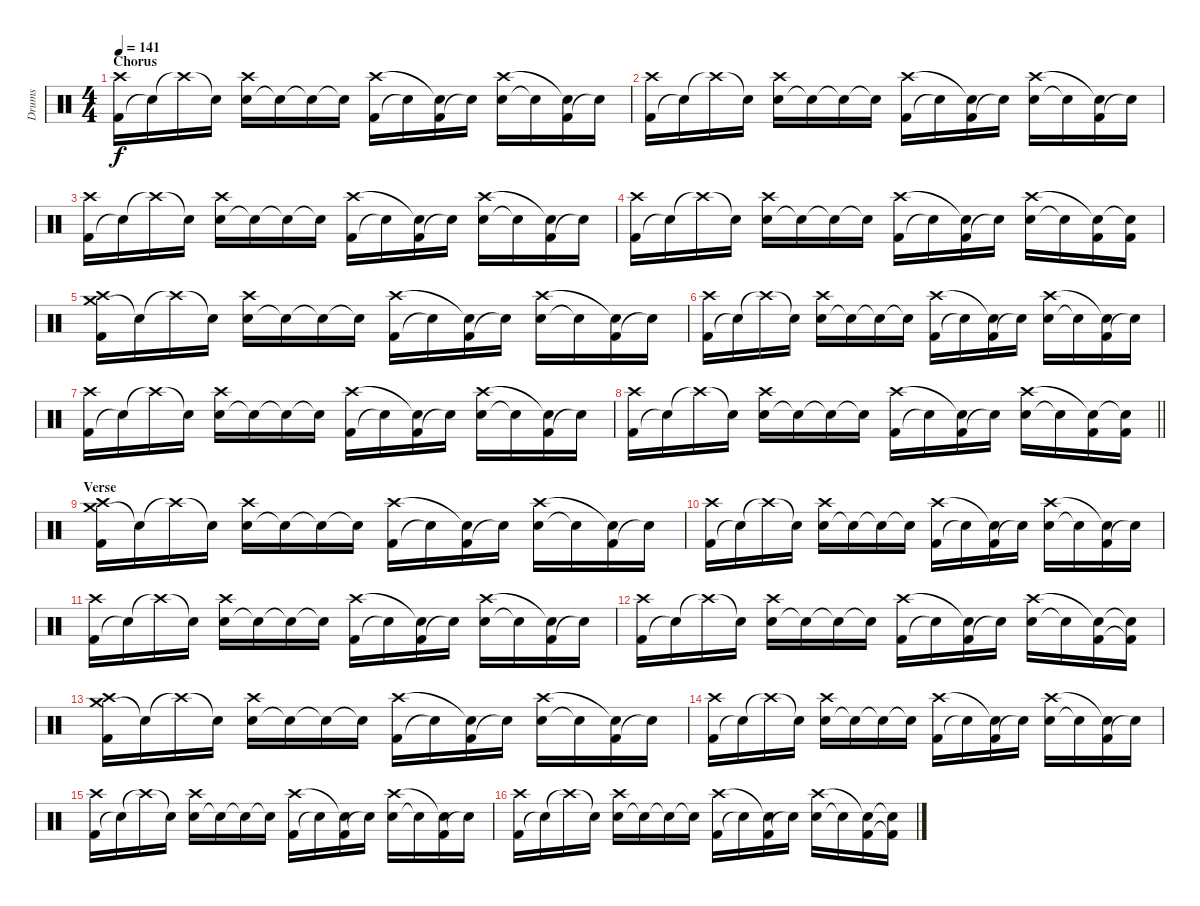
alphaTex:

\track ("Drums" "Drums") {instrument percussion}
\staff {score}
\articulation defaults
\ts (4 4)
\section ("" "Chorus")
\tempo 141
\clef neutral
\ks c
("Kick (hit) 2" "Crash high (hit)").16{dy f} "Snare (hit)"{t}.16 "Crash high (hit)"{t}.16 "Snare (hit)"{t}.16 ("Snare (hit) 2" "Crash high (hit)").16 "Snare (hit)"{t}.16 "Snare (hit)"{t}.16 "Snare (hit)"{t}.16 ("Kick (hit) 2" "Crash high (hit)").16 "Snare (hit)"{t}.16 ("Kick (hit) 2" "Snare (hit)"{t}).16 "Snare (hit)"{t}.16 ("Snare (hit) 2" "Crash high (hit)").16 "Snare (hit)"{t}.16 ("Kick (hit) 2" "Snare (hit)"{t}).16 "Snare (hit)"{t}.16 |
("Kick (hit) 2" "Crash high (hit)").16 "Snare (hit)"{t}.16 "Crash high (hit)"{t}.16 "Snare (hit)"{t}.16 ("Snare (hit) 2" "Crash high (hit)").16 "Snare (hit)"{t}.16 "Snare (hit)"{t}.16 "Snare (hit)"{t}.16 ("Kick (hit) 2" "Crash high (hit)").16 "Snare (hit)"{t}.16 ("Kick (hit) 2" "Snare (hit)"{t}).16 "Snare (hit)"{t}.16 ("Snare (hit) 2" "Crash high (hit)").16 "Snare (hit)"{t}.16 ("Kick (hit) 2" "Snare (hit)"{t}).16 "Snare (hit)"{t}.16 |
("Kick (hit) 2" "Crash high (hit)").16 "Snare (hit)"{t}.16 "Crash high (hit)"{t}.16 "Snare (hit)"{t}.16 ("Snare (hit) 2" "Crash high (hit)").16 "Snare (hit)"{t}.16 "Snare (hit)"{t}.16 "Snare (hit)"{t}.16 ("Kick (hit) 2" "Crash high (hit)").16 "Snare (hit)"{t}.16 ("Kick (hit) 2" "Snare (hit)"{t}).16 "Snare (hit)"{t}.16 ("Snare (hit) 2" "Crash high (hit)").16 "Snare (hit)"{t}.16 ("Kick (hit) 2" "Snare (hit)"{t}).16 "Snare (hit)"{t}.16 |
("Kick (hit) 2" "Crash high (hit)").16 "Snare (hit)"{t}.16 "Crash high (hit)"{t}.16 "Snare (hit)"{t}.16 ("Snare (hit) 2" "Crash high (hit)").16 "Snare (hit)"{t}.16 "Snare (hit)"{t}.16 "Snare (hit)"{t}.16 ("Kick (hit) 2" "Crash high (hit)").16 "Snare (hit)"{t}.16 ("Kick (hit) 2" "Snare (hit)"{t}).16 "Snare (hit)"{t}.16 ("Snare (hit) 2" "Crash high (hit)").16 "Snare (hit)"{t}.16 ("Kick (hit) 2" "Snare (hit)"{t}).16 ("Kick (hit) 2" "Snare (hit)"{t}).16 |
("Crash medium (hit)" "Kick (hit) 2" "Crash high (hit)").16 "Snare (hit)"{t}.16 "Crash high (hit)"{t}.16 "Snare (hit)"{t}.16 ("Snare (hit) 2" "Crash high (hit)").16 "Snare (hit)"{t}.16 "Snare (hit)"{t}.16 "Snare (hit)"{t}.16 ("Kick (hit) 2" "Crash high (hit)").16 "Snare (hit)"{t}.16 ("Kick (hit) 2" "Snare (hit)"{t}).16 "Snare (hit)"{t}.16 ("Snare (hit) 2" "Crash high (hit)").16 "Snare (hit)"{t}.16 ("Kick (hit) 2" "Snare (hit)"{t}).16 "Snare (hit)"{t}.16 |
("Kick (hit) 2" "Crash high (hit)").16 "Snare (hit)"{t}.16 "Crash high (hit)"{t}.16 "Snare (hit)"{t}.16 ("Snare (hit) 2" "Crash high (hit)").16 "Snare (hit)"{t}.16 "Snare (hit)"{t}.16 "Snare (hit)"{t}.16 ("Kick (hit) 2" "Crash high (hit)").16 "Snare (hit)"{t}.16 ("Kick (hit) 2" "Snare (hit)"{t}).16 "Snare (hit)"{t}.16 ("Snare (hit) 2" "Crash high (hit)").16 "Snare (hit)"{t}.16 ("Kick (hit) 2" "Snare (hit)"{t}).16 "Snare (hit)"{t}.16 |
("Kick (hit) 2" "Crash high (hit)").16 "Snare (hit)"{t}.16 "Crash high (hit)"{t}.16 "Snare (hit)"{t}.16 ("Snare (hit) 2" "Crash high (hit)").16 "Snare (hit)"{t}.16 "Snare (hit)"{t}.16 "Snare (hit)"{t}.16 ("Kick (hit) 2" "Crash high (hit)").16 "Snare (hit)"{t}.16 ("Kick (hit) 2" "Snare (hit)"{t}).16 "Snare (hit)"{t}.16 ("Snare (hit) 2" "Crash high (hit)").16 "Snare (hit)"{t}.16 ("Kick (hit) 2" "Snare (hit)"{t}).16 "Snare (hit)"{t}.16 |
\barLineRight lightlight
("Kick (hit) 2" "Crash high (hit)").16 "Snare (hit)"{t}.16 "Crash high (hit)"{t}.16 "Snare (hit)"{t}.16 ("Snare (hit) 2" "Crash high (hit)").16 "Snare (hit)"{t}.16 "Snare (hit)"{t}.16 "Snare (hit)"{t}.16 ("Kick (hit) 2" "Crash high (hit)").16 "Snare (hit)"{t}.16 ("Kick (hit) 2" "Snare (hit)"{t}).16 "Snare (hit)"{t}.16 ("Snare (hit) 2" "Crash high (hit)").16 "Snare (hit)"{t}.16 ("Kick (hit) 2" "Snare (hit)"{t}).16 ("Kick (hit) 2" "Snare (hit)"{t}).16 |
\section ("" "Verse ")
("Crash medium (hit)" "Kick (hit) 2" "Crash high (hit)").16 "Snare (hit)"{t}.16 "Crash high (hit)"{t}.16 "Snare (hit)"{t}.16 ("Snare (hit) 2" "Crash high (hit)").16 "Snare (hit)"{t}.16 "Snare (hit)"{t}.16 "Snare (hit)"{t}.16 ("Kick (hit) 2" "Crash high (hit)").16 "Snare (hit)"{t}.16 ("Kick (hit) 2" "Snare (hit)"{t}).16 "Snare (hit)"{t}.16 ("Snare (hit) 2" "Crash high (hit)").16 "Snare (hit)"{t}.16 ("Kick (hit) 2" "Snare (hit)"{t}).16 "Snare (hit)"{t}.16 |
("Kick (hit) 2" "Crash high (hit)").16 "Snare (hit)"{t}.16 "Crash high (hit)"{t}.16 "Snare (hit)"{t}.16 ("Snare (hit) 2" "Crash high (hit)").16 "Snare (hit)"{t}.16 "Snare (hit)"{t}.16 "Snare (hit)"{t}.16 ("Kick (hit) 2" "Crash high (hit)").16 "Snare (hit)"{t}.16 ("Kick (hit) 2" "Snare (hit)"{t}).16 "Snare (hit)"{t}.16 ("Snare (hit) 2" "Crash high (hit)").16 "Snare (hit)"{t}.16 ("Kick (hit) 2" "Snare (hit)"{t}).16 "Snare (hit)"{t}.16 |
("Kick (hit) 2" "Crash high (hit)").16 "Snare (hit)"{t}.16 "Crash high (hit)"{t}.16 "Snare (hit)"{t}.16 ("Snare (hit) 2" "Crash high (hit)").16 "Snare (hit)"{t}.16 "Snare (hit)"{t}.16 "Snare (hit)"{t}.16 ("Kick (hit) 2" "Crash high (hit)").16 "Snare (hit)"{t}.16 ("Kick (hit) 2" "Snare (hit)"{t}).16 "Snare (hit)"{t}.16 ("Snare (hit) 2" "Crash high (hit)").16 "Snare (hit)"{t}.16 ("Kick (hit) 2" "Snare (hit)"{t}).16 "Snare (hit)"{t}.16 |
("Kick (hit) 2" "Crash high (hit)").16 "Snare (hit)"{t}.16 "Crash high (hit)"{t}.16 "Snare (hit)"{t}.16 ("Snare (hit) 2" "Crash high (hit)").16 "Snare (hit)"{t}.16 "Snare (hit)"{t}.16 "Snare (hit)"{t}.16 ("Kick (hit) 2" "Crash high (hit)").16 "Snare (hit)"{t}.16 ("Kick (hit) 2" "Snare (hit)"{t}).16 "Snare (hit)"{t}.16 ("Snare (hit) 2" "Crash high (hit)").16 "Snare (hit)"{t}.16 ("Kick (hit) 2" "Snare (hit)"{t}).16 ("Kick (hit) 2"{t} "Snare (hit)"{t}).16 |
("Crash medium (hit)" "Kick (hit) 2" "Crash high (hit)").16 "Snare (hit)"{t}.16 "Crash high (hit)"{t}.16 "Snare (hit)"{t}.16 ("Snare (hit) 2" "Crash high (hit)").16 "Snare (hit)"{t}.16 "Snare (hit)"{t}.16 "Snare (hit)"{t}.16 ("Kick (hit) 2" "Crash high (hit)").16 "Snare (hit)"{t}.16 ("Kick (hit) 2" "Snare (hit)"{t}).16 "Snare (hit)"{t}.16 ("Snare (hit) 2" "Crash high (hit)").16 "Snare (hit)"{t}.16 ("Kick (hit) 2" "Snare (hit)"{t}).16 "Snare (hit)"{t}.16 |
("Kick (hit) 2" "Crash high (hit)").16 "Snare (hit)"{t}.16 "Crash high (hit)"{t}.16 "Snare (hit)"{t}.16 ("Snare (hit) 2" "Crash high (hit)").16 "Snare (hit)"{t}.16 "Snare (hit)"{t}.16 "Snare (hit)"{t}.16 ("Kick (hit) 2" "Crash high (hit)").16 "Snare (hit)"{t}.16 ("Kick (hit) 2" "Snare (hit)"{t}).16 "Snare (hit)"{t}.16 ("Snare (hit) 2" "Crash high (hit)").16 "Snare (hit)"{t}.16 ("Kick (hit) 2" "Snare (hit)"{t}).16 "Snare (hit)"{t}.16 |
("Kick (hit) 2" "Crash high (hit)").16 "Snare (hit)"{t}.16 "Crash high (hit)"{t}.16 "Snare (hit)"{t}.16 ("Snare (hit) 2" "Crash high (hit)").16 "Snare (hit)"{t}.16 "Snare (hit)"{t}.16 "Snare (hit)"{t}.16 ("Kick (hit) 2" "Crash high (hit)").16 "Snare (hit)"{t}.16 ("Kick (hit) 2" "Snare (hit)"{t}).16 "Snare (hit)"{t}.16 ("Snare (hit) 2" "Crash high (hit)").16 "Snare (hit)"{t}.16 ("Kick (hit) 2" "Snare (hit)"{t}).16 "Snare (hit)"{t}.16 |
("Kick (hit) 2" "Crash high (hit)").16 "Snare (hit)"{t}.16 "Crash high (hit)"{t}.16 "Snare (hit)"{t}.16 ("Snare (hit) 2" "Crash high (hit)").16 "Snare (hit)"{t}.16 "Snare (hit)"{t}.16 "Snare (hit)"{t}.16 ("Kick (hit) 2" "Crash high (hit)").16 "Snare (hit)"{t}.16 ("Kick (hit) 2" "Snare (hit)"{t}).16 "Snare (hit)"{t}.16 ("Snare (hit) 2" "Crash high (hit)").16 "Snare (hit)"{t}.16 ("Kick (hit) 2" "Snare (hit)"{t}).16 ("Kick (hit) 2"{t} "Snare (hit)"{t}).16
